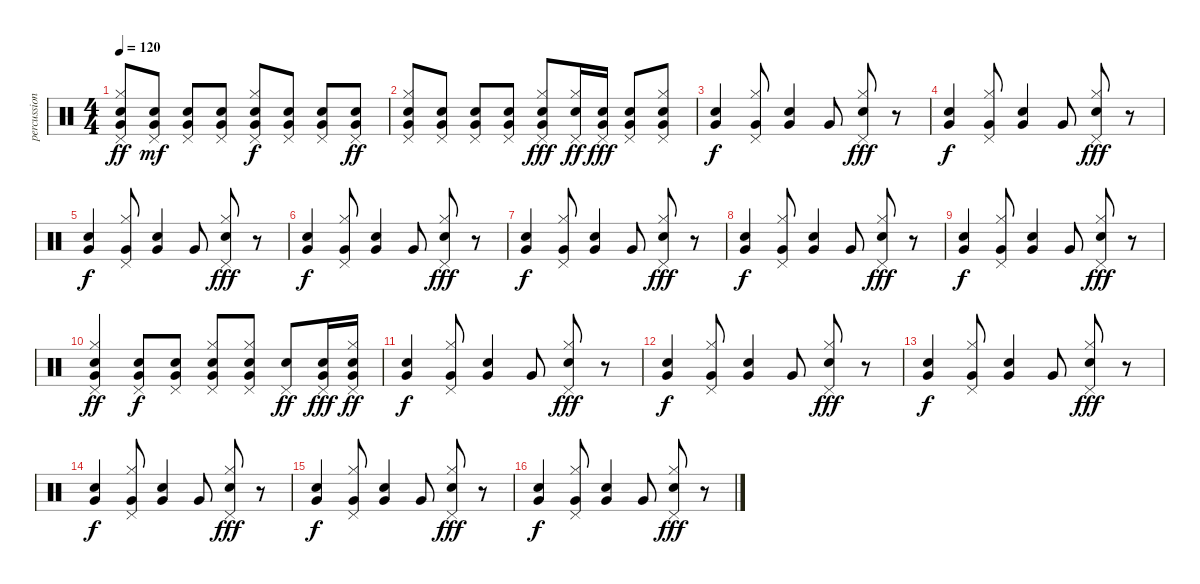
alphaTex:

\track ("percussion" "percussion") {instrument percussion}
\staff {score}
\articulation defaults
\ts (4 4)
\tempo 120
\clef neutral
\ks c
("Pedal Hi-Hat (hit)" "Hi-Hat (closed)" "Snare (hit) 2" "Very Low Tom (hit)").8{dy ff} ("Pedal Hi-Hat (hit)" "Snare (hit) 2" "Very Low Tom (hit)").8{dy mf} ("Pedal Hi-Hat (hit)" "Snare (hit) 2" "Very Low Tom (hit)").8 ("Pedal Hi-Hat (hit)" "Snare (hit) 2" "Very Low Tom (hit)").8 ("Pedal Hi-Hat (hit)" "Hi-Hat (closed)" "Snare (hit) 2" "Very Low Tom (hit)").8{dy f} ("Pedal Hi-Hat (hit)" "Snare (hit) 2" "Very Low Tom (hit)").8 ("Pedal Hi-Hat (hit)" "Snare (hit) 2" "Very Low Tom (hit)").8 ("Pedal Hi-Hat (hit)" "Snare (hit) 2" "Very Low Tom (hit)").8{dy ff} |
("Pedal Hi-Hat (hit)" "Hi-Hat (closed)" "Snare (hit) 2" "Very Low Tom (hit)").8 ("Pedal Hi-Hat (hit)" "Snare (hit) 2" "Very Low Tom (hit)").8 ("Pedal Hi-Hat (hit)" "Snare (hit) 2" "Very Low Tom (hit)").8 ("Pedal Hi-Hat (hit)" "Snare (hit) 2" "Very Low Tom (hit)").8 ("Pedal Hi-Hat (hit)" "Hi-Hat (closed)" "Snare (hit) 2" "Very Low Tom (hit)").8{dy fff} ("Pedal Hi-Hat (hit)" "Hi-Hat (closed)" "Snare (hit) 2").16{dy ff} ("Pedal Hi-Hat (hit)" "Snare (hit) 2" "Very Low Tom (hit)").16{dy fff} ("Pedal Hi-Hat (hit)" "Snare (hit) 2" "Very Low Tom (hit)").8 ("Pedal Hi-Hat (hit)" "Hi-Hat (closed)" "Snare (hit) 2" "Very Low Tom (hit)").8 |
("Snare (hit) 2" "Very Low Tom (hit)").4{dy f} ("Pedal Hi-Hat (hit)" "Hi-Hat (closed)" "Very Low Tom (hit)").8 ("Snare (hit) 2" "Very Low Tom (hit)").4 "Very Low Tom (hit)".8 ("Pedal Hi-Hat (hit)" "Hi-Hat (closed)" "Snare (hit) 2").8{dy fff} r.8 |
("Snare (hit) 2" "Very Low Tom (hit)").4{dy f} ("Pedal Hi-Hat (hit)" "Hi-Hat (closed)" "Very Low Tom (hit)").8 ("Snare (hit) 2" "Very Low Tom (hit)").4 "Very Low Tom (hit)".8 ("Pedal Hi-Hat (hit)" "Hi-Hat (closed)" "Snare (hit) 2").8{dy fff} r.8 |
("Snare (hit) 2" "Very Low Tom (hit)").4{dy f} ("Pedal Hi-Hat (hit)" "Hi-Hat (closed)" "Very Low Tom (hit)").8 ("Snare (hit) 2" "Very Low Tom (hit)").4 "Very Low Tom (hit)".8 ("Pedal Hi-Hat (hit)" "Hi-Hat (closed)" "Snare (hit) 2").8{dy fff} r.8 |
("Snare (hit) 2" "Very Low Tom (hit)").4{dy f} ("Pedal Hi-Hat (hit)" "Hi-Hat (closed)" "Very Low Tom (hit)").8 ("Snare (hit) 2" "Very Low Tom (hit)").4 "Very Low Tom (hit)".8 ("Pedal Hi-Hat (hit)" "Hi-Hat (closed)" "Snare (hit) 2").8{dy fff} r.8 |
("Snare (hit) 2" "Very Low Tom (hit)").4{dy f} ("Pedal Hi-Hat (hit)" "Hi-Hat (closed)" "Very Low Tom (hit)").8 ("Snare (hit) 2" "Very Low Tom (hit)").4 "Very Low Tom (hit)".8 ("Pedal Hi-Hat (hit)" "Hi-Hat (closed)" "Snare (hit) 2").8{dy fff} r.8 |
("Snare (hit) 2" "Very Low Tom (hit)").4{dy f} ("Pedal Hi-Hat (hit)" "Hi-Hat (closed)" "Very Low Tom (hit)").8 ("Snare (hit) 2" "Very Low Tom (hit)").4 "Very Low Tom (hit)".8 ("Pedal Hi-Hat (hit)" "Hi-Hat (closed)" "Snare (hit) 2").8{dy fff} r.8 |
("Snare (hit) 2" "Very Low Tom (hit)").4{dy f} ("Pedal Hi-Hat (hit)" "Hi-Hat (closed)" "Very Low Tom (hit)").8 ("Snare (hit) 2" "Very Low Tom (hit)").4 "Very Low Tom (hit)".8 ("Pedal Hi-Hat (hit)" "Hi-Hat (closed)" "Snare (hit) 2").8{dy fff} r.8 |
("Pedal Hi-Hat (hit)" "Hi-Hat (closed)" "Snare (hit) 2" "Very Low Tom (hit)").4{dy ff} ("Pedal Hi-Hat (hit)" "Snare (hit) 2" "Very Low Tom (hit)").8{dy f} ("Pedal Hi-Hat (hit)" "Snare (hit) 2" "Very Low Tom (hit)").8 ("Pedal Hi-Hat (hit)" "Hi-Hat (closed)" "Snare (hit) 2" "Very Low Tom (hit)").8 ("Pedal Hi-Hat (hit)" "Hi-Hat (closed)" "Snare (hit) 2" "Very Low Tom (hit)").8 ("Pedal Hi-Hat (hit)" "Snare (hit) 2").8{dy ff} ("Pedal Hi-Hat (hit)" "Snare (hit) 2" "Very Low Tom (hit)").16{dy fff} ("Pedal Hi-Hat (hit)" "Hi-Hat (closed)" "Snare (hit) 2" "Very Low Tom (hit)").16{dy ff} |
("Snare (hit) 2" "Very Low Tom (hit)").4{dy f} ("Pedal Hi-Hat (hit)" "Hi-Hat (closed)" "Very Low Tom (hit)").8 ("Snare (hit) 2" "Very Low Tom (hit)").4 "Very Low Tom (hit)".8 ("Pedal Hi-Hat (hit)" "Hi-Hat (closed)" "Snare (hit) 2").8{dy fff} r.8 |
("Snare (hit) 2" "Very Low Tom (hit)").4{dy f} ("Pedal Hi-Hat (hit)" "Hi-Hat (closed)" "Very Low Tom (hit)").8 ("Snare (hit) 2" "Very Low Tom (hit)").4 "Very Low Tom (hit)".8 ("Pedal Hi-Hat (hit)" "Hi-Hat (closed)" "Snare (hit) 2").8{dy fff} r.8 |
("Snare (hit) 2" "Very Low Tom (hit)").4{dy f} ("Pedal Hi-Hat (hit)" "Hi-Hat (closed)" "Very Low Tom (hit)").8 ("Snare (hit) 2" "Very Low Tom (hit)").4 "Very Low Tom (hit)".8 ("Pedal Hi-Hat (hit)" "Hi-Hat (closed)" "Snare (hit) 2").8{dy fff} r.8 |
("Snare (hit) 2" "Very Low Tom (hit)").4{dy f} ("Pedal Hi-Hat (hit)" "Hi-Hat (closed)" "Very Low Tom (hit)").8 ("Snare (hit) 2" "Very Low Tom (hit)").4 "Very Low Tom (hit)".8 ("Pedal Hi-Hat (hit)" "Hi-Hat (closed)" "Snare (hit) 2").8{dy fff} r.8 |
("Snare (hit) 2" "Very Low Tom (hit)").4{dy f} ("Pedal Hi-Hat (hit)" "Hi-Hat (closed)" "Very Low Tom (hit)").8 ("Snare (hit) 2" "Very Low Tom (hit)").4 "Very Low Tom (hit)".8 ("Pedal Hi-Hat (hit)" "Hi-Hat (closed)" "Snare (hit) 2").8{dy fff} r.8 |
("Snare (hit) 2" "Very Low Tom (hit)").4{dy f} ("Pedal Hi-Hat (hit)" "Hi-Hat (closed)" "Very Low Tom (hit)").8 ("Snare (hit) 2" "Very Low Tom (hit)").4 "Very Low Tom (hit)".8 ("Pedal Hi-Hat (hit)" "Hi-Hat (closed)" "Snare (hit) 2").8{dy fff} r.8
